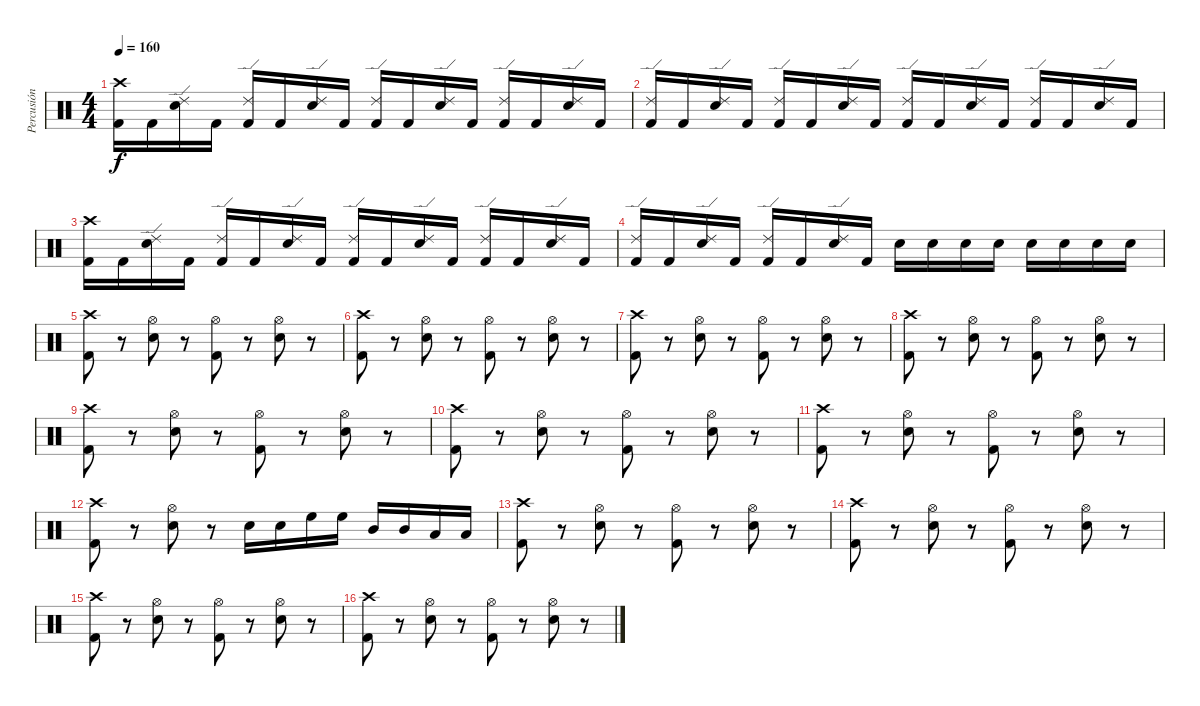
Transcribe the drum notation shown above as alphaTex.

\track ("Percusión" "Percusión") {instrument percussion}
\staff {score}
\articulation defaults
\ts (4 4)
\tempo 160
\clef neutral
\ks c
("Crash high (hit)" "Kick (hit) 2").16{dy f} "Kick (hit) 2".16 ("Ride (edge) 2" "Electric Snare (hit)").16 "Kick (hit) 2".16 ("Ride (edge) 2" "Kick (hit) 2").16 "Kick (hit) 2".16 ("Ride (edge) 2" "Electric Snare (hit)").16 "Kick (hit) 2".16 ("Ride (edge) 2" "Kick (hit) 2").16 "Kick (hit) 2".16 ("Ride (edge) 2" "Electric Snare (hit)").16 "Kick (hit) 2".16 ("Ride (edge) 2" "Kick (hit) 2").16 "Kick (hit) 2".16 ("Ride (edge) 2" "Electric Snare (hit)").16 "Kick (hit) 2".16 |
("Ride (edge) 2" "Kick (hit) 2").16 "Kick (hit) 2".16 ("Ride (edge) 2" "Electric Snare (hit)").16 "Kick (hit) 2".16 ("Ride (edge) 2" "Kick (hit) 2").16 "Kick (hit) 2".16 ("Ride (edge) 2" "Electric Snare (hit)").16 "Kick (hit) 2".16 ("Ride (edge) 2" "Kick (hit) 2").16 "Kick (hit) 2".16 ("Ride (edge) 2" "Electric Snare (hit)").16 "Kick (hit) 2".16 ("Ride (edge) 2" "Kick (hit) 2").16 "Kick (hit) 2".16 ("Ride (edge) 2" "Electric Snare (hit)").16 "Kick (hit) 2".16 |
("Crash high (hit)" "Kick (hit) 2").16 "Kick (hit) 2".16 ("Ride (edge) 2" "Electric Snare (hit)").16 "Kick (hit) 2".16 ("Ride (edge) 2" "Kick (hit) 2").16 "Kick (hit) 2".16 ("Ride (edge) 2" "Electric Snare (hit)").16 "Kick (hit) 2".16 ("Ride (edge) 2" "Kick (hit) 2").16 "Kick (hit) 2".16 ("Ride (edge) 2" "Electric Snare (hit)").16 "Kick (hit) 2".16 ("Ride (edge) 2" "Kick (hit) 2").16 "Kick (hit) 2".16 ("Ride (edge) 2" "Electric Snare (hit)").16 "Kick (hit) 2".16 |
("Ride (edge) 2" "Kick (hit) 2").16 "Kick (hit) 2".16 ("Ride (edge) 2" "Electric Snare (hit)").16 "Kick (hit) 2".16 ("Ride (edge) 2" "Kick (hit) 2").16 "Kick (hit) 2".16 ("Ride (edge) 2" "Electric Snare (hit)").16 "Kick (hit) 2".16 "Electric Snare (hit)".16 "Electric Snare (hit)".16 "Electric Snare (hit)".16 "Electric Snare (hit)".16 "Electric Snare (hit)".16 "Electric Snare (hit)".16 "Electric Snare (hit)".16 "Electric Snare (hit)".16 |
("Crash high (hit)" "Kick (hit) 2").8 r.8 ("Hi-Hat (open)" "Electric Snare (hit)").8 r.8 ("Hi-Hat (open)" "Kick (hit) 2").8 r.8 ("Hi-Hat (open)" "Electric Snare (hit)").8 r.8 |
("Crash high (hit)" "Kick (hit) 2").8 r.8 ("Hi-Hat (open)" "Electric Snare (hit)").8 r.8 ("Hi-Hat (open)" "Kick (hit) 2").8 r.8 ("Hi-Hat (open)" "Electric Snare (hit)").8 r.8 |
("Crash high (hit)" "Kick (hit) 2").8 r.8 ("Hi-Hat (open)" "Electric Snare (hit)").8 r.8 ("Hi-Hat (open)" "Kick (hit) 2").8 r.8 ("Hi-Hat (open)" "Electric Snare (hit)").8 r.8 |
("Crash high (hit)" "Kick (hit) 2").8 r.8 ("Hi-Hat (open)" "Electric Snare (hit)").8 r.8 ("Hi-Hat (open)" "Kick (hit) 2").8 r.8 ("Hi-Hat (open)" "Electric Snare (hit)").8 r.8 |
("Crash high (hit)" "Kick (hit) 2").8 r.8 ("Hi-Hat (open)" "Electric Snare (hit)").8 r.8 ("Hi-Hat (open)" "Kick (hit) 2").8 r.8 ("Hi-Hat (open)" "Electric Snare (hit)").8 r.8 |
("Crash high (hit)" "Kick (hit) 2").8 r.8 ("Hi-Hat (open)" "Electric Snare (hit)").8 r.8 ("Hi-Hat (open)" "Kick (hit) 2").8 r.8 ("Hi-Hat (open)" "Electric Snare (hit)").8 r.8 |
("Crash high (hit)" "Kick (hit) 2").8 r.8 ("Hi-Hat (open)" "Electric Snare (hit)").8 r.8 ("Hi-Hat (open)" "Kick (hit) 2").8 r.8 ("Hi-Hat (open)" "Electric Snare (hit)").8 r.8 |
("Crash high (hit)" "Kick (hit) 2").8 r.8 ("Hi-Hat (open)" "Electric Snare (hit)").8 r.8 "Electric Snare (hit)".16 "Electric Snare (hit)".16 "High Floor Tom (hit)".16 "High Floor Tom (hit)".16 "Mid Tom (hit)".16 "Mid Tom (hit)".16 "Low Tom (hit)".16 "Low Tom (hit)".16 |
("Crash high (hit)" "Kick (hit) 2").8 r.8 ("Hi-Hat (open)" "Electric Snare (hit)").8 r.8 ("Hi-Hat (open)" "Kick (hit) 2").8 r.8 ("Hi-Hat (open)" "Electric Snare (hit)").8 r.8 |
("Crash high (hit)" "Kick (hit) 2").8 r.8 ("Hi-Hat (open)" "Electric Snare (hit)").8 r.8 ("Hi-Hat (open)" "Kick (hit) 2").8 r.8 ("Hi-Hat (open)" "Electric Snare (hit)").8 r.8 |
("Crash high (hit)" "Kick (hit) 2").8 r.8 ("Hi-Hat (open)" "Electric Snare (hit)").8 r.8 ("Hi-Hat (open)" "Kick (hit) 2").8 r.8 ("Hi-Hat (open)" "Electric Snare (hit)").8 r.8 |
("Crash high (hit)" "Kick (hit) 2").8 r.8 ("Hi-Hat (open)" "Electric Snare (hit)").8 r.8 ("Hi-Hat (open)" "Kick (hit) 2").8 r.8 ("Hi-Hat (open)" "Electric Snare (hit)").8 r.8
